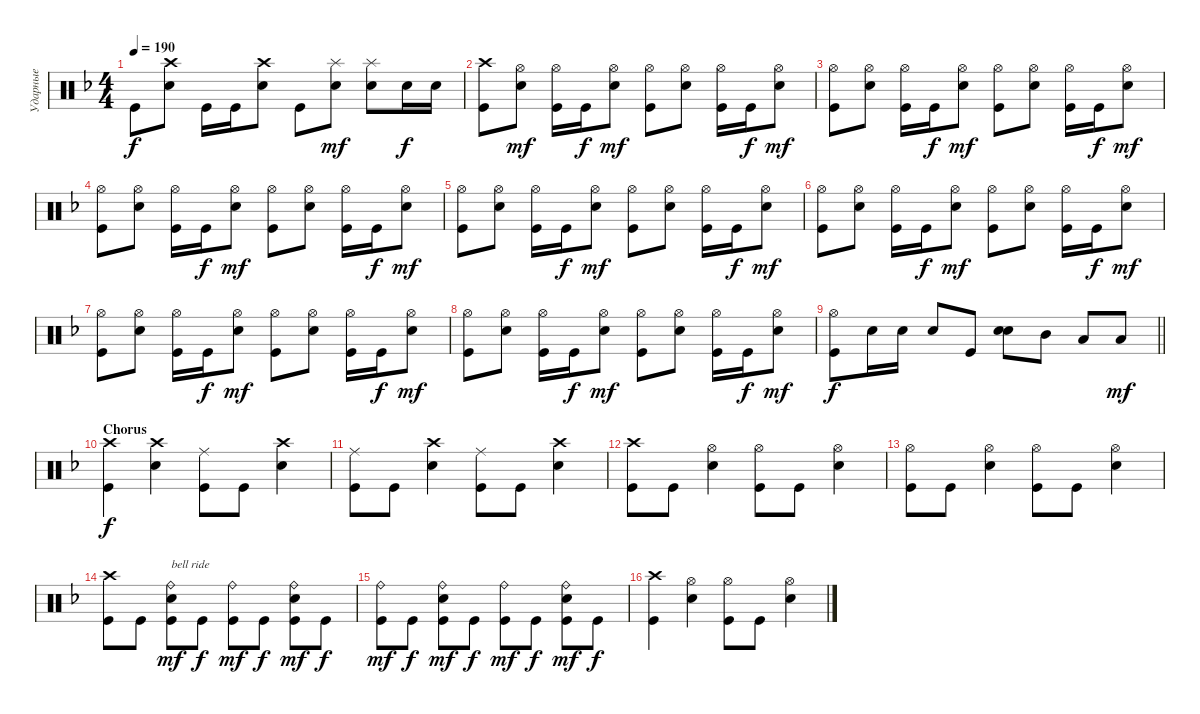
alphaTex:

\track ("Ударные" "Ударные") {instrument percussion}
\staff {score}
\articulation defaults
\ts (4 4)
\tempo 190
\clef neutral
\ks dminor "Kick (hit)".8{dy f}
("Snare (hit) 2" "Crash high (hit)").8 "Kick (hit)".16 "Kick (hit)".16 ("Snare (hit) 2" "Crash high (hit)").8 "Kick (hit)".8 ("Snare (hit) 2" "Splash (hit)").8{dy mf} ("Snare (hit) 2" "Splash (hit)").8 "Snare (hit) 2".16{dy f} "Snare (hit) 2".16 |
("Kick (hit)" "Crash high (hit)").8 ("Snare (hit) 2" "Hi-Hat (open)").8{dy mf} ("Kick (hit)" "Hi-Hat (open)").16 "Kick (hit)".16{dy f} ("Snare (hit) 2" "Hi-Hat (open)").8{dy mf} ("Kick (hit)" "Hi-Hat (open)").8 ("Snare (hit) 2" "Hi-Hat (open)").8 ("Kick (hit)" "Hi-Hat (open)").16 "Kick (hit)".16{dy f} ("Snare (hit) 2" "Hi-Hat (open)").8{dy mf} |
("Kick (hit)" "Hi-Hat (open)").8 ("Snare (hit) 2" "Hi-Hat (open)").8 ("Kick (hit)" "Hi-Hat (open)").16 "Kick (hit)".16{dy f} ("Snare (hit) 2" "Hi-Hat (open)").8{dy mf} ("Kick (hit)" "Hi-Hat (open)").8 ("Snare (hit) 2" "Hi-Hat (open)").8 ("Kick (hit)" "Hi-Hat (open)").16 "Kick (hit)".16{dy f} ("Snare (hit) 2" "Hi-Hat (open)").8{dy mf} |
("Kick (hit)" "Hi-Hat (open)").8 ("Snare (hit) 2" "Hi-Hat (open)").8 ("Kick (hit)" "Hi-Hat (open)").16 "Kick (hit)".16{dy f} ("Snare (hit) 2" "Hi-Hat (open)").8{dy mf} ("Kick (hit)" "Hi-Hat (open)").8 ("Snare (hit) 2" "Hi-Hat (open)").8 ("Kick (hit)" "Hi-Hat (open)").16 "Kick (hit)".16{dy f} ("Snare (hit) 2" "Hi-Hat (open)").8{dy mf} |
("Kick (hit)" "Hi-Hat (open)").8 ("Snare (hit) 2" "Hi-Hat (open)").8 ("Kick (hit)" "Hi-Hat (open)").16 "Kick (hit)".16{dy f} ("Snare (hit) 2" "Hi-Hat (open)").8{dy mf} ("Kick (hit)" "Hi-Hat (open)").8 ("Snare (hit) 2" "Hi-Hat (open)").8 ("Kick (hit)" "Hi-Hat (open)").16 "Kick (hit)".16{dy f} ("Snare (hit) 2" "Hi-Hat (open)").8{dy mf} |
("Kick (hit)" "Hi-Hat (open)").8 ("Snare (hit) 2" "Hi-Hat (open)").8 ("Kick (hit)" "Hi-Hat (open)").16 "Kick (hit)".16{dy f} ("Snare (hit) 2" "Hi-Hat (open)").8{dy mf} ("Kick (hit)" "Hi-Hat (open)").8 ("Snare (hit) 2" "Hi-Hat (open)").8 ("Kick (hit)" "Hi-Hat (open)").16 "Kick (hit)".16{dy f} ("Snare (hit) 2" "Hi-Hat (open)").8{dy mf} |
("Kick (hit)" "Hi-Hat (open)").8 ("Snare (hit) 2" "Hi-Hat (open)").8 ("Kick (hit)" "Hi-Hat (open)").16 "Kick (hit)".16{dy f} ("Snare (hit) 2" "Hi-Hat (open)").8{dy mf} ("Kick (hit)" "Hi-Hat (open)").8 ("Snare (hit) 2" "Hi-Hat (open)").8 ("Kick (hit)" "Hi-Hat (open)").16 "Kick (hit)".16{dy f} ("Snare (hit) 2" "Hi-Hat (open)").8{dy mf} |
("Kick (hit)" "Hi-Hat (open)").8 ("Snare (hit) 2" "Hi-Hat (open)").8 ("Kick (hit)" "Hi-Hat (open)").16 "Kick (hit)".16{dy f} ("Snare (hit) 2" "Hi-Hat (open)").8{dy mf} ("Kick (hit)" "Hi-Hat (open)").8 ("Snare (hit) 2" "Hi-Hat (open)").8 ("Kick (hit)" "Hi-Hat (open)").16 "Kick (hit)".16{dy f} ("Snare (hit) 2" "Hi-Hat (open)").8{dy mf} |
\barLineRight lightlight
("Kick (hit)" "Hi-Hat (open)").8{dy f} "Snare (hit) 2".16 "Snare (hit) 2".16 "Snare (hit) 2".8 "Kick (hit)".8 ("Snare (hit) 2" "Snare (hit) 2").8{bd 240} "Mid Tom (hit)".8 "Low Tom (hit)".8 "Low Tom (hit)".8{dy mf} |
\section ("" "Chorus")
("Kick (hit)" "Crash high (hit)").4{dy f} ("Snare (hit) 2" "Crash high (hit)").4 ("Kick (hit)" "Ride (middle)").8 "Kick (hit)".8 ("Snare (hit) 2" "Crash high (hit)").4 |
("Kick (hit)" "Ride (middle)").8 "Kick (hit)".8 ("Snare (hit) 2" "Crash high (hit)").4 ("Kick (hit)" "Ride (middle)").8 "Kick (hit)".8 ("Snare (hit) 2" "Crash high (hit)").4 |
("Kick (hit)" "Crash high (hit)").8 "Kick (hit)".8 ("Snare (hit) 2" "Hi-Hat (open)").4 ("Kick (hit)" "Hi-Hat (open)").8 "Kick (hit)".8 ("Snare (hit) 2" "Hi-Hat (open)").4 |
("Kick (hit)" "Hi-Hat (open)").8 "Kick (hit)".8 ("Snare (hit) 2" "Hi-Hat (open)").4 ("Kick (hit)" "Hi-Hat (open)").8 "Kick (hit)".8 ("Snare (hit) 2" "Hi-Hat (open)").4 |
("Kick (hit)" "Crash high (hit)").8 "Kick (hit)".8 ("Kick (hit)" "Snare (hit) 2" "Ride (bell)").8{txt "bell ride" dy mf} "Kick (hit)".8{dy f} ("Kick (hit)" "Ride (bell)").8{dy mf} "Kick (hit)".8{dy f} ("Kick (hit)" "Snare (hit) 2" "Ride (bell)").8{dy mf} "Kick (hit)".8{dy f} |
("Kick (hit)" "Ride (bell)").8{dy mf} "Kick (hit)".8{dy f} ("Kick (hit)" "Snare (hit) 2" "Ride (bell)").8{dy mf} "Kick (hit)".8{dy f} ("Kick (hit)" "Ride (bell)").8{dy mf} "Kick (hit)".8{dy f} ("Kick (hit)" "Snare (hit) 2" "Ride (bell)").8{dy mf} "Kick (hit)".8{dy f} |
("Kick (hit)" "Crash high (hit)").4 ("Snare (hit) 2" "Hi-Hat (open)").4 ("Kick (hit)" "Hi-Hat (open)").8 "Kick (hit)".8 ("Snare (hit) 2" "Hi-Hat (open)").4
